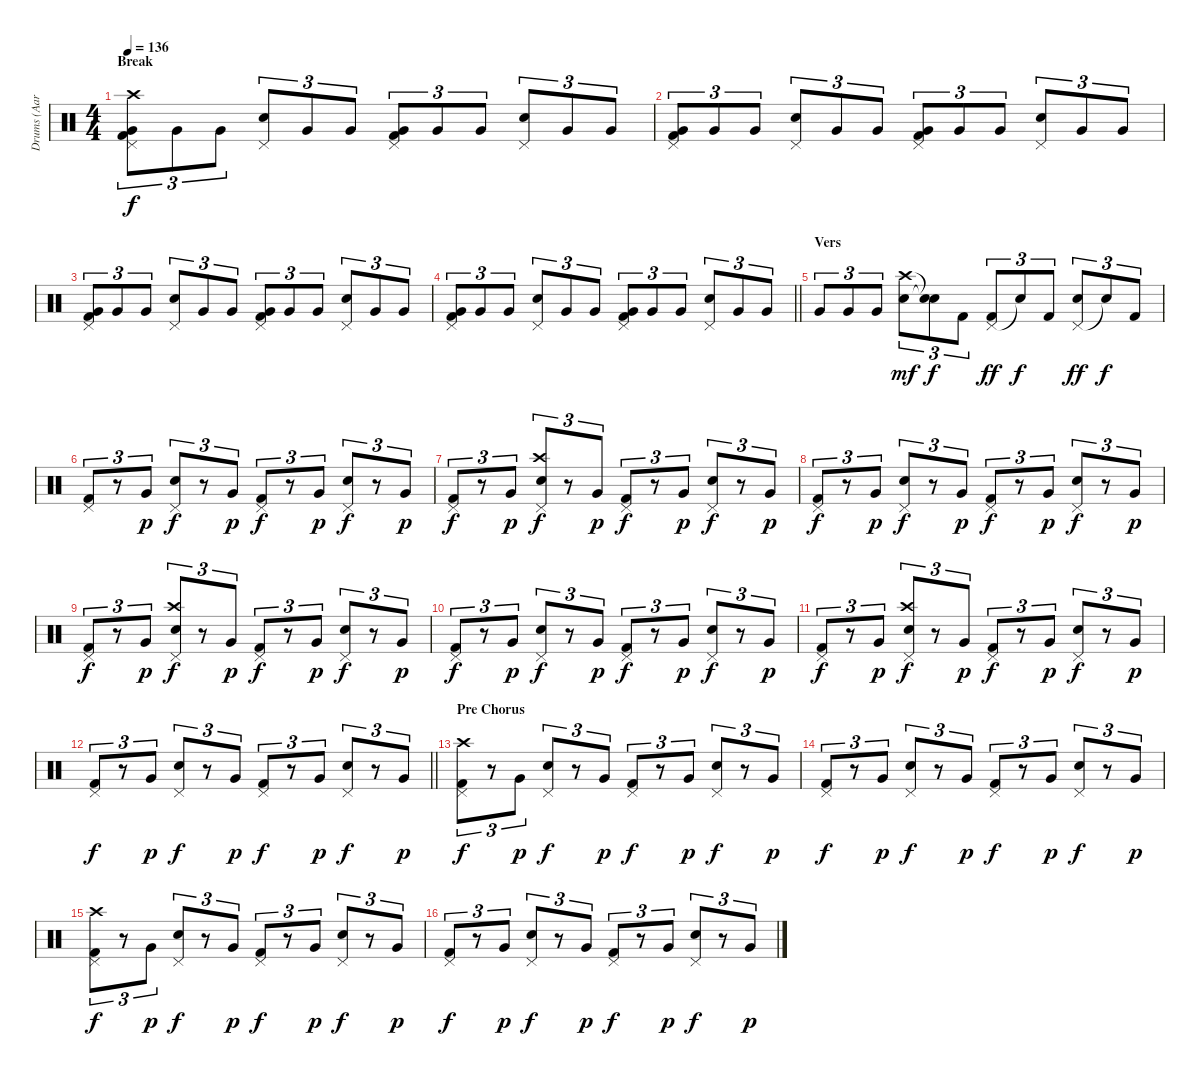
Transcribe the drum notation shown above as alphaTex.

\track ("Drums (Aaron Solowoniuk)" "Drums (Aar") {instrument percussion}
\staff {score}
\articulation defaults
\ts (4 4)
\section ("" "Break")
\tempo 136
\clef neutral
\ks c
("Pedal Hi-Hat (hit)" "Very Low Tom (hit)" "Kick (hit) 2" "Crash high (hit)").8{tu (3 2) dy f} "Very Low Tom (hit)".8{tu (3 2)} "Very Low Tom (hit)".8{tu (3 2)} ("Pedal Hi-Hat (hit)" "Electric Snare (hit)").8{tu (3 2)} "Very Low Tom (hit)".8{tu (3 2)} "Very Low Tom (hit)".8{tu (3 2)} ("Pedal Hi-Hat (hit)" "Very Low Tom (hit)" "Kick (hit) 2").8{tu (3 2)} "Very Low Tom (hit)".8{tu (3 2)} "Very Low Tom (hit)".8{tu (3 2)} ("Pedal Hi-Hat (hit)" "Electric Snare (hit)").8{tu (3 2)} "Very Low Tom (hit)".8{tu (3 2)} "Very Low Tom (hit)".8{tu (3 2)} |
("Pedal Hi-Hat (hit)" "Very Low Tom (hit)" "Kick (hit) 2").8{tu (3 2)} "Very Low Tom (hit)".8{tu (3 2)} "Very Low Tom (hit)".8{tu (3 2)} ("Pedal Hi-Hat (hit)" "Electric Snare (hit)").8{tu (3 2)} "Very Low Tom (hit)".8{tu (3 2)} "Very Low Tom (hit)".8{tu (3 2)} ("Pedal Hi-Hat (hit)" "Very Low Tom (hit)" "Kick (hit) 2").8{tu (3 2)} "Very Low Tom (hit)".8{tu (3 2)} "Very Low Tom (hit)".8{tu (3 2)} ("Pedal Hi-Hat (hit)" "Electric Snare (hit)").8{tu (3 2)} "Very Low Tom (hit)".8{tu (3 2)} "Very Low Tom (hit)".8{tu (3 2)} |
("Pedal Hi-Hat (hit)" "Very Low Tom (hit)" "Kick (hit) 2").8{tu (3 2)} "Very Low Tom (hit)".8{tu (3 2)} "Very Low Tom (hit)".8{tu (3 2)} ("Pedal Hi-Hat (hit)" "Electric Snare (hit)").8{tu (3 2)} "Very Low Tom (hit)".8{tu (3 2)} "Very Low Tom (hit)".8{tu (3 2)} ("Pedal Hi-Hat (hit)" "Very Low Tom (hit)" "Kick (hit) 2").8{tu (3 2)} "Very Low Tom (hit)".8{tu (3 2)} "Very Low Tom (hit)".8{tu (3 2)} ("Pedal Hi-Hat (hit)" "Electric Snare (hit)").8{tu (3 2)} "Very Low Tom (hit)".8{tu (3 2)} "Very Low Tom (hit)".8{tu (3 2)} |
\barLineRight lightlight
("Pedal Hi-Hat (hit)" "Very Low Tom (hit)" "Kick (hit) 2").8{tu (3 2)} "Very Low Tom (hit)".8{tu (3 2)} "Very Low Tom (hit)".8{tu (3 2)} ("Pedal Hi-Hat (hit)" "Electric Snare (hit)").8{tu (3 2)} "Very Low Tom (hit)".8{tu (3 2)} "Very Low Tom (hit)".8{tu (3 2)} ("Pedal Hi-Hat (hit)" "Very Low Tom (hit)" "Kick (hit) 2").8{tu (3 2)} "Very Low Tom (hit)".8{tu (3 2)} "Very Low Tom (hit)".8{tu (3 2)} ("Pedal Hi-Hat (hit)" "Electric Snare (hit)").8{tu (3 2)} "Very Low Tom (hit)".8{tu (3 2)} "Very Low Tom (hit)".8{tu (3 2)} |
\section ("" "Vers")
"Very Low Tom (hit)".8{tu (3 2)} "Very Low Tom (hit)".8{tu (3 2)} "Very Low Tom (hit)".8{tu (3 2)} ("Crash high (hit)" "Electric Snare (hit)").8{tu (3 2) dy mf} ("Snare (hit)"{t} "Snare (hit)"{t}).8{tu (3 2) dy f} "Kick (hit) 2".8{tu (3 2)} ("Pedal Hi-Hat (hit)" "Kick (hit) 2").8{tu (3 2) dy ff} "Snare (hit)"{t}.8{tu (3 2) dy f} "Kick (hit) 2".8{tu (3 2)} ("Pedal Hi-Hat (hit)" "Electric Snare (hit)").8{tu (3 2) dy ff} "Snare (hit)"{t}.8{tu (3 2) dy f} "Kick (hit) 2".8{tu (3 2)} |
("Pedal Hi-Hat (hit)" "Kick (hit) 2").8{tu (3 2)} r.8{tu (3 2)} "Very Low Tom (hit)".8{tu (3 2) dy p} ("Pedal Hi-Hat (hit)" "Electric Snare (hit)").8{tu (3 2) dy f} r.8{tu (3 2)} "Very Low Tom (hit)".8{tu (3 2) dy p} ("Pedal Hi-Hat (hit)" "Kick (hit) 2").8{tu (3 2) dy f} r.8{tu (3 2)} "Very Low Tom (hit)".8{tu (3 2) dy p} ("Pedal Hi-Hat (hit)" "Electric Snare (hit)").8{tu (3 2) dy f} r.8{tu (3 2)} "Very Low Tom (hit)".8{tu (3 2) dy p} |
("Pedal Hi-Hat (hit)" "Kick (hit) 2").8{tu (3 2) dy f} r.8{tu (3 2)} "Very Low Tom (hit)".8{tu (3 2) dy p} ("Crash high (hit)" "Pedal Hi-Hat (hit)" "Electric Snare (hit)").8{tu (3 2) dy f} r.8{tu (3 2)} "Very Low Tom (hit)".8{tu (3 2) dy p} ("Pedal Hi-Hat (hit)" "Kick (hit) 2").8{tu (3 2) dy f} r.8{tu (3 2)} "Very Low Tom (hit)".8{tu (3 2) dy p} ("Pedal Hi-Hat (hit)" "Electric Snare (hit)").8{tu (3 2) dy f} r.8{tu (3 2)} "Very Low Tom (hit)".8{tu (3 2) dy p} |
("Pedal Hi-Hat (hit)" "Kick (hit) 2").8{tu (3 2) dy f} r.8{tu (3 2)} "Very Low Tom (hit)".8{tu (3 2) dy p} ("Pedal Hi-Hat (hit)" "Electric Snare (hit)").8{tu (3 2) dy f} r.8{tu (3 2)} "Very Low Tom (hit)".8{tu (3 2) dy p} ("Pedal Hi-Hat (hit)" "Kick (hit) 2").8{tu (3 2) dy f} r.8{tu (3 2)} "Very Low Tom (hit)".8{tu (3 2) dy p} ("Pedal Hi-Hat (hit)" "Electric Snare (hit)").8{tu (3 2) dy f} r.8{tu (3 2)} "Very Low Tom (hit)".8{tu (3 2) dy p} |
("Pedal Hi-Hat (hit)" "Kick (hit) 2").8{tu (3 2) dy f} r.8{tu (3 2)} "Very Low Tom (hit)".8{tu (3 2) dy p} ("Crash high (hit)" "Pedal Hi-Hat (hit)" "Electric Snare (hit)").8{tu (3 2) dy f} r.8{tu (3 2)} "Very Low Tom (hit)".8{tu (3 2) dy p} ("Pedal Hi-Hat (hit)" "Kick (hit) 2").8{tu (3 2) dy f} r.8{tu (3 2)} "Very Low Tom (hit)".8{tu (3 2) dy p} ("Pedal Hi-Hat (hit)" "Electric Snare (hit)").8{tu (3 2) dy f} r.8{tu (3 2)} "Very Low Tom (hit)".8{tu (3 2) dy p} |
("Pedal Hi-Hat (hit)" "Kick (hit) 2").8{tu (3 2) dy f} r.8{tu (3 2)} "Very Low Tom (hit)".8{tu (3 2) dy p} ("Pedal Hi-Hat (hit)" "Electric Snare (hit)").8{tu (3 2) dy f} r.8{tu (3 2)} "Very Low Tom (hit)".8{tu (3 2) dy p} ("Pedal Hi-Hat (hit)" "Kick (hit) 2").8{tu (3 2) dy f} r.8{tu (3 2)} "Very Low Tom (hit)".8{tu (3 2) dy p} ("Pedal Hi-Hat (hit)" "Electric Snare (hit)").8{tu (3 2) dy f} r.8{tu (3 2)} "Very Low Tom (hit)".8{tu (3 2) dy p} |
("Pedal Hi-Hat (hit)" "Kick (hit) 2").8{tu (3 2) dy f} r.8{tu (3 2)} "Very Low Tom (hit)".8{tu (3 2) dy p} ("Crash high (hit)" "Pedal Hi-Hat (hit)" "Electric Snare (hit)").8{tu (3 2) dy f} r.8{tu (3 2)} "Very Low Tom (hit)".8{tu (3 2) dy p} ("Pedal Hi-Hat (hit)" "Kick (hit) 2").8{tu (3 2) dy f} r.8{tu (3 2)} "Very Low Tom (hit)".8{tu (3 2) dy p} ("Pedal Hi-Hat (hit)" "Electric Snare (hit)").8{tu (3 2) dy f} r.8{tu (3 2)} "Very Low Tom (hit)".8{tu (3 2) dy p} |
\barLineRight lightlight
("Pedal Hi-Hat (hit)" "Kick (hit) 2").8{tu (3 2) dy f} r.8{tu (3 2)} "Very Low Tom (hit)".8{tu (3 2) dy p} ("Pedal Hi-Hat (hit)" "Electric Snare (hit)").8{tu (3 2) dy f} r.8{tu (3 2)} "Very Low Tom (hit)".8{tu (3 2) dy p} ("Pedal Hi-Hat (hit)" "Kick (hit) 2").8{tu (3 2) dy f} r.8{tu (3 2)} "Very Low Tom (hit)".8{tu (3 2) dy p} ("Pedal Hi-Hat (hit)" "Electric Snare (hit)").8{tu (3 2) dy f} r.8{tu (3 2)} "Very Low Tom (hit)".8{tu (3 2) dy p} |
\section ("" "Pre Chorus")
("Pedal Hi-Hat (hit)" "Kick (hit) 2" "Crash high (hit)").8{tu (3 2) dy f} r.8{tu (3 2)} "Very Low Tom (hit)".8{tu (3 2) dy p} ("Pedal Hi-Hat (hit)" "Electric Snare (hit)").8{tu (3 2) dy f} r.8{tu (3 2)} "Very Low Tom (hit)".8{tu (3 2) dy p} ("Pedal Hi-Hat (hit)" "Kick (hit) 2").8{tu (3 2) dy f} r.8{tu (3 2)} "Very Low Tom (hit)".8{tu (3 2) dy p} ("Pedal Hi-Hat (hit)" "Electric Snare (hit)").8{tu (3 2) dy f} r.8{tu (3 2)} "Very Low Tom (hit)".8{tu (3 2) dy p} |
("Pedal Hi-Hat (hit)" "Kick (hit) 2").8{tu (3 2) dy f} r.8{tu (3 2)} "Very Low Tom (hit)".8{tu (3 2) dy p} ("Pedal Hi-Hat (hit)" "Electric Snare (hit)").8{tu (3 2) dy f} r.8{tu (3 2)} "Very Low Tom (hit)".8{tu (3 2) dy p} ("Pedal Hi-Hat (hit)" "Kick (hit) 2").8{tu (3 2) dy f} r.8{tu (3 2)} "Very Low Tom (hit)".8{tu (3 2) dy p} ("Pedal Hi-Hat (hit)" "Electric Snare (hit)").8{tu (3 2) dy f} r.8{tu (3 2)} "Very Low Tom (hit)".8{tu (3 2) dy p} |
("Pedal Hi-Hat (hit)" "Kick (hit) 2" "Crash high (hit)").8{tu (3 2) dy f} r.8{tu (3 2)} "Very Low Tom (hit)".8{tu (3 2) dy p} ("Pedal Hi-Hat (hit)" "Electric Snare (hit)").8{tu (3 2) dy f} r.8{tu (3 2)} "Very Low Tom (hit)".8{tu (3 2) dy p} ("Pedal Hi-Hat (hit)" "Kick (hit) 2").8{tu (3 2) dy f} r.8{tu (3 2)} "Very Low Tom (hit)".8{tu (3 2) dy p} ("Pedal Hi-Hat (hit)" "Electric Snare (hit)").8{tu (3 2) dy f} r.8{tu (3 2)} "Very Low Tom (hit)".8{tu (3 2) dy p} |
("Pedal Hi-Hat (hit)" "Kick (hit) 2").8{tu (3 2) dy f} r.8{tu (3 2)} "Very Low Tom (hit)".8{tu (3 2) dy p} ("Pedal Hi-Hat (hit)" "Electric Snare (hit)").8{tu (3 2) dy f} r.8{tu (3 2)} "Very Low Tom (hit)".8{tu (3 2) dy p} ("Pedal Hi-Hat (hit)" "Kick (hit) 2").8{tu (3 2) dy f} r.8{tu (3 2)} "Very Low Tom (hit)".8{tu (3 2) dy p} ("Pedal Hi-Hat (hit)" "Electric Snare (hit)").8{tu (3 2) dy f} r.8{tu (3 2)} "Very Low Tom (hit)".8{tu (3 2) dy p}
